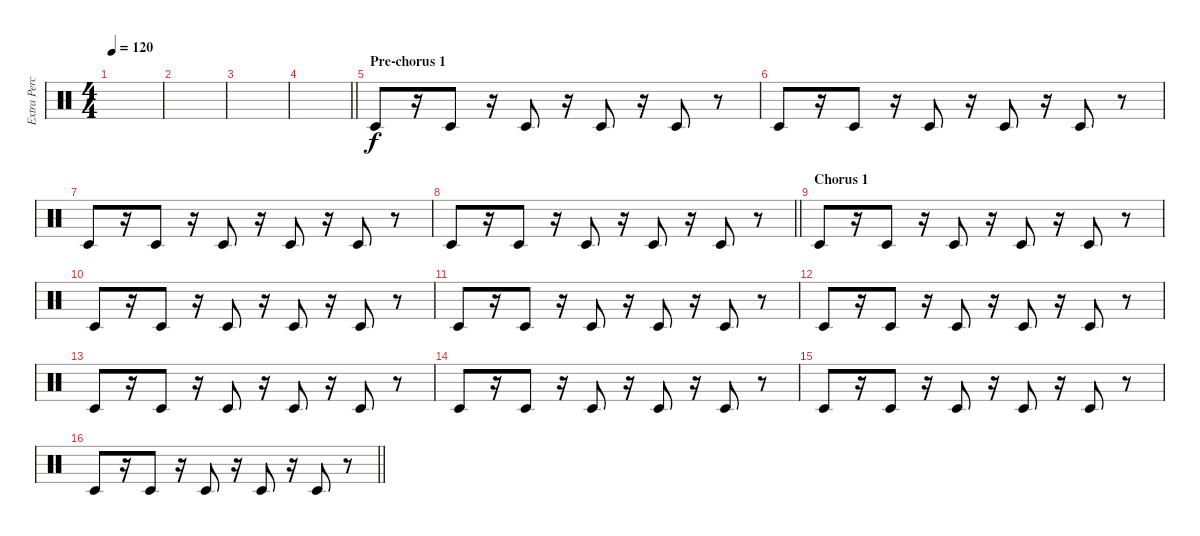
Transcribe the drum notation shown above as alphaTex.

\track ("Extra Percussion" "Extra Perc") {instrument percussion}
\staff {score}
\articulation defaults
\ts (4 4)
\tempo 120
\clef neutral
\ks c
|
|
|
\barLineRight lightlight
|
\section ("" "Pre-chorus 1")
"Timbale low (hit)".8 r.16 "Timbale low (hit)".8 r.16 "Timbale low (hit)".8 r.16 "Timbale low (hit)".8 r.16 "Timbale low (hit)".8 r.8 |
"Timbale low (hit)".8 r.16 "Timbale low (hit)".8 r.16 "Timbale low (hit)".8 r.16 "Timbale low (hit)".8 r.16 "Timbale low (hit)".8 r.8 |
"Timbale low (hit)".8 r.16 "Timbale low (hit)".8 r.16 "Timbale low (hit)".8 r.16 "Timbale low (hit)".8 r.16 "Timbale low (hit)".8 r.8 |
\barLineRight lightlight "Timbale low (hit)".8
r.16 "Timbale low (hit)".8 r.16 "Timbale low (hit)".8 r.16 "Timbale low (hit)".8 r.16 "Timbale low (hit)".8 r.8 |
\section ("" "Chorus 1")
"Timbale low (hit)".8 r.16 "Timbale low (hit)".8 r.16 "Timbale low (hit)".8 r.16 "Timbale low (hit)".8 r.16 "Timbale low (hit)".8 r.8 |
"Timbale low (hit)".8 r.16 "Timbale low (hit)".8 r.16 "Timbale low (hit)".8 r.16 "Timbale low (hit)".8 r.16 "Timbale low (hit)".8 r.8 |
"Timbale low (hit)".8 r.16 "Timbale low (hit)".8 r.16 "Timbale low (hit)".8 r.16 "Timbale low (hit)".8 r.16 "Timbale low (hit)".8 r.8 |
"Timbale low (hit)".8 r.16 "Timbale low (hit)".8 r.16 "Timbale low (hit)".8 r.16 "Timbale low (hit)".8 r.16 "Timbale low (hit)".8 r.8 |
"Timbale low (hit)".8 r.16 "Timbale low (hit)".8 r.16 "Timbale low (hit)".8 r.16 "Timbale low (hit)".8 r.16 "Timbale low (hit)".8 r.8 |
"Timbale low (hit)".8 r.16 "Timbale low (hit)".8 r.16 "Timbale low (hit)".8 r.16 "Timbale low (hit)".8 r.16 "Timbale low (hit)".8 r.8 |
"Timbale low (hit)".8 r.16 "Timbale low (hit)".8 r.16 "Timbale low (hit)".8 r.16 "Timbale low (hit)".8 r.16 "Timbale low (hit)".8 r.8 |
\barLineRight lightlight "Timbale low (hit)".8
r.16 "Timbale low (hit)".8 r.16 "Timbale low (hit)".8 r.16 "Timbale low (hit)".8 r.16 "Timbale low (hit)".8 r.8
